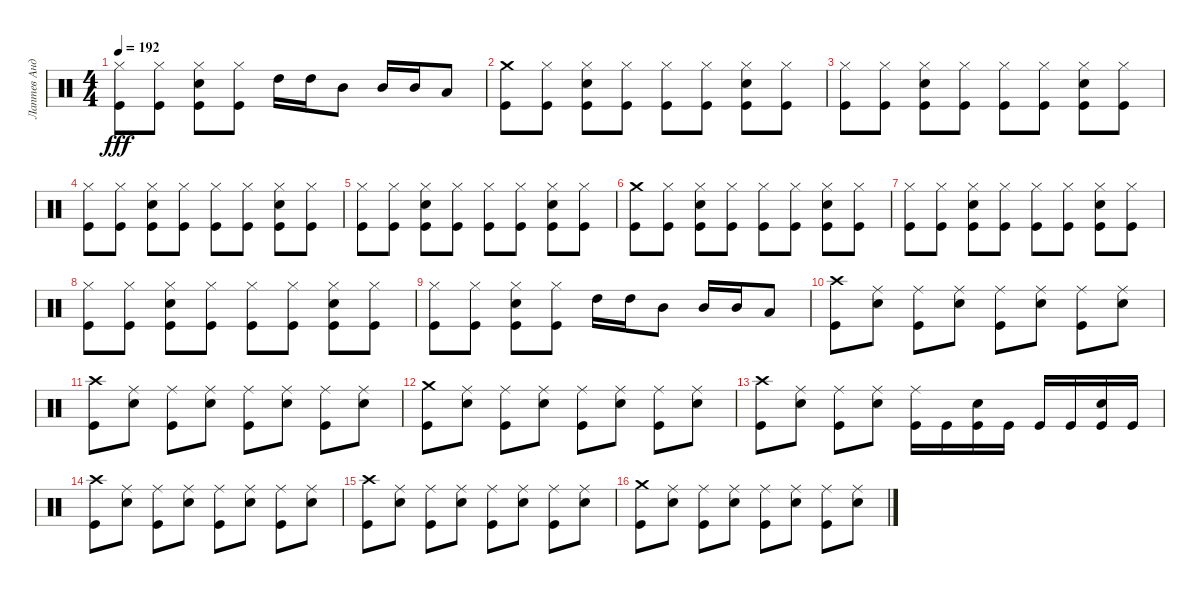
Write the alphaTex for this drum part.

\track ("Лаптев Андрей" "Лаптев Анд") {instrument percussion}
\staff {score}
\articulation defaults
\ts (4 4)
\tempo 192
\clef neutral
\ks c
("Kick (hit)" "Hi-Hat (closed)").8{dy fff} ("Hi-Hat (closed)" "Kick (hit)").8 ("Electric Snare (hit)" "Kick (hit)" "Hi-Hat (closed)").8 ("Kick (hit)" "Hi-Hat (closed)").8 "High Tom (hit)".16 "High Tom (hit)".16 "Mid Tom (hit)".8 "Mid Tom (hit)".16 "Mid Tom (hit)".16 "Low Tom (hit)".8 |
("Crash medium (hit)" "Kick (hit)").8 ("Hi-Hat (closed)" "Kick (hit)").8 ("Electric Snare (hit)" "Kick (hit)" "Hi-Hat (closed)").8 ("Kick (hit)" "Hi-Hat (closed)").8 ("Hi-Hat (closed)" "Kick (hit)").8 ("Hi-Hat (closed)" "Kick (hit)").8 ("Kick (hit)" "Electric Snare (hit)" "Hi-Hat (closed)").8 ("Hi-Hat (closed)" "Kick (hit)").8 |
("Kick (hit)" "Hi-Hat (closed)").8 ("Kick (hit)" "Hi-Hat (closed)").8 ("Hi-Hat (closed)" "Kick (hit)" "Electric Snare (hit)").8 ("Kick (hit)" "Hi-Hat (closed)").8 ("Kick (hit)" "Hi-Hat (closed)").8 ("Hi-Hat (closed)" "Kick (hit)").8 ("Hi-Hat (closed)" "Kick (hit)" "Electric Snare (hit)").8 ("Kick (hit)" "Hi-Hat (closed)").8 |
("Kick (hit)" "Hi-Hat (closed)").8 ("Kick (hit)" "Hi-Hat (closed)").8 ("Electric Snare (hit)" "Kick (hit)" "Hi-Hat (closed)").8 ("Hi-Hat (closed)" "Kick (hit)").8 ("Kick (hit)" "Hi-Hat (closed)").8 ("Hi-Hat (closed)" "Kick (hit)").8 ("Hi-Hat (closed)" "Electric Snare (hit)" "Kick (hit)").8 ("Kick (hit)" "Hi-Hat (closed)").8 |
("Hi-Hat (closed)" "Kick (hit)").8 ("Hi-Hat (closed)" "Kick (hit)").8 ("Kick (hit)" "Electric Snare (hit)" "Hi-Hat (closed)").8 ("Kick (hit)" "Hi-Hat (closed)").8 ("Hi-Hat (closed)" "Kick (hit)").8 ("Hi-Hat (closed)" "Kick (hit)").8 ("Kick (hit)" "Electric Snare (hit)" "Hi-Hat (closed)").8 ("Hi-Hat (closed)" "Kick (hit)").8 |
("Kick (hit)" "Crash medium (hit)").8 ("Hi-Hat (closed)" "Kick (hit)").8 ("Electric Snare (hit)" "Kick (hit)" "Hi-Hat (closed)").8 ("Kick (hit)" "Hi-Hat (closed)").8 ("Hi-Hat (closed)" "Kick (hit)").8 ("Hi-Hat (closed)" "Kick (hit)").8 ("Kick (hit)" "Electric Snare (hit)" "Hi-Hat (closed)").8 ("Kick (hit)" "Hi-Hat (closed)").8 |
("Kick (hit)" "Hi-Hat (closed)").8 ("Kick (hit)" "Hi-Hat (closed)").8 ("Kick (hit)" "Hi-Hat (closed)" "Electric Snare (hit)").8 ("Hi-Hat (closed)" "Kick (hit)").8 ("Hi-Hat (closed)" "Kick (hit)").8 ("Hi-Hat (closed)" "Kick (hit)").8 ("Kick (hit)" "Hi-Hat (closed)" "Electric Snare (hit)").8 ("Kick (hit)" "Hi-Hat (closed)").8 |
("Kick (hit)" "Hi-Hat (closed)").8 ("Kick (hit)" "Hi-Hat (closed)").8 ("Kick (hit)" "Hi-Hat (closed)" "Electric Snare (hit)").8 ("Kick (hit)" "Hi-Hat (closed)").8 ("Hi-Hat (closed)" "Kick (hit)").8 ("Hi-Hat (closed)" "Kick (hit)").8 ("Electric Snare (hit)" "Kick (hit)" "Hi-Hat (closed)").8 ("Kick (hit)" "Hi-Hat (closed)").8 |
("Kick (hit)" "Hi-Hat (closed)").8 ("Hi-Hat (closed)" "Kick (hit)").8 ("Kick (hit)" "Hi-Hat (closed)" "Electric Snare (hit)").8 ("Kick (hit)" "Hi-Hat (closed)").8 "High Tom (hit)".16 "High Tom (hit)".16 "Mid Tom (hit)".8 "Mid Tom (hit)".16 "Mid Tom (hit)".16 "Low Tom (hit)".8 |
("Crash high (hit)" "Kick (hit)").8 ("Ride (middle)" "Electric Snare (hit)").8 ("Kick (hit)" "Ride (middle)").8 ("Electric Snare (hit)" "Ride (middle)").8 ("Kick (hit)" "Ride (middle)").8 ("Electric Snare (hit)" "Ride (middle)").8 ("Ride (middle)" "Kick (hit)").8 ("Ride (middle)" "Electric Snare (hit)").8 |
("Crash high (hit)" "Kick (hit)").8 ("Ride (middle)" "Electric Snare (hit)").8 ("Ride (middle)" "Kick (hit)").8 ("Electric Snare (hit)" "Ride (middle)").8 ("Ride (middle)" "Kick (hit)").8 ("Ride (middle)" "Electric Snare (hit)").8 ("Kick (hit)" "Ride (middle)").8 ("Ride (middle)" "Electric Snare (hit)").8 |
("Kick (hit)" "Crash medium (hit)").8 ("Electric Snare (hit)" "Ride (middle)").8 ("Ride (middle)" "Kick (hit)").8 ("Ride (middle)" "Electric Snare (hit)").8 ("Kick (hit)" "Ride (middle)").8 ("Ride (middle)" "Electric Snare (hit)").8 ("Kick (hit)" "Ride (middle)").8 ("Electric Snare (hit)" "Ride (middle)").8 |
("Kick (hit)" "Crash high (hit)").8 ("Ride (middle)" "Electric Snare (hit)").8 ("Ride (middle)" "Kick (hit)").8 ("Electric Snare (hit)" "Ride (middle)").8 ("Ride (middle)" "Kick (hit)").16 "Kick (hit)".16 ("Electric Snare (hit)" "Kick (hit)").16 "Kick (hit)".16 "Kick (hit)".16 "Kick (hit)".16 ("Kick (hit)" "Electric Snare (hit)").16 "Kick (hit)".16 |
("Kick (hit)" "Crash high (hit)").8 ("Electric Snare (hit)" "Ride (middle)").8 ("Kick (hit)" "Ride (middle)").8 ("Electric Snare (hit)" "Ride (middle)").8 ("Ride (middle)" "Kick (hit)").8 ("Ride (middle)" "Electric Snare (hit)").8 ("Kick (hit)" "Ride (middle)").8 ("Ride (middle)" "Electric Snare (hit)").8 |
("Crash high (hit)" "Kick (hit)").8 ("Electric Snare (hit)" "Ride (middle)").8 ("Kick (hit)" "Ride (middle)").8 ("Electric Snare (hit)" "Ride (middle)").8 ("Kick (hit)" "Ride (middle)").8 ("Ride (middle)" "Electric Snare (hit)").8 ("Ride (middle)" "Kick (hit)").8 ("Ride (middle)" "Electric Snare (hit)").8 |
("Crash medium (hit)" "Kick (hit)").8 ("Electric Snare (hit)" "Ride (middle)").8 ("Ride (middle)" "Kick (hit)").8 ("Ride (middle)" "Electric Snare (hit)").8 ("Ride (middle)" "Kick (hit)").8 ("Ride (middle)" "Electric Snare (hit)").8 ("Ride (middle)" "Kick (hit)").8 ("Electric Snare (hit)" "Ride (middle)").8
